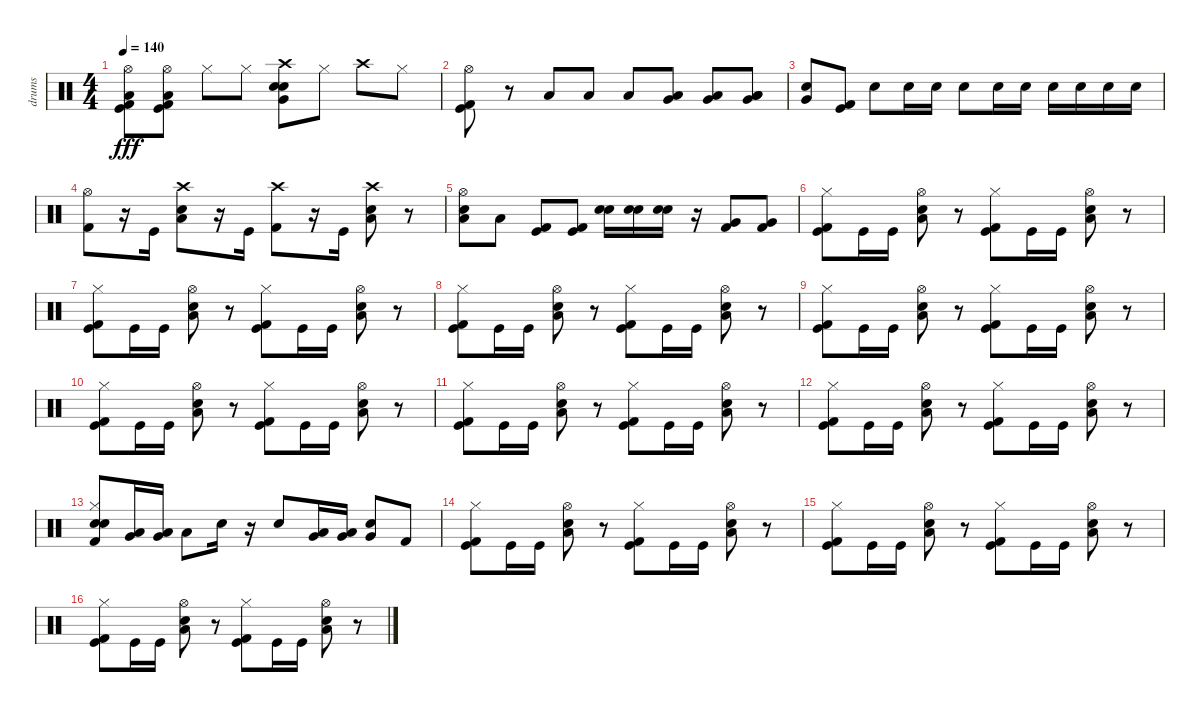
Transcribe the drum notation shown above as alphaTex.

\track ("drums" "drums") {instrument percussion}
\staff {score}
\articulation defaults
\ts (4 4)
\tempo 140
\clef neutral
\ks c
("Hi-Hat (open)" "Low Floor Tom (hit)" "Kick (hit)" "Kick (hit) 2").8{dy fff} ("Hi-Hat (open)" "Low Floor Tom (hit)" "Kick (hit)" "Kick (hit) 2").8 "Hi-Hat (closed)".8 "Hi-Hat (closed)".8 ("Crash high (hit)" "Very Low Tom (hit)" "Snare (hit) 2" "Electric Snare (hit)").8 "Hi-Hat (closed)".8 "Crash high (hit)".8 "Hi-Hat (closed)".8 |
("Kick (hit)" "Hi-Hat (open)" "Kick (hit) 2").8 r.8 "Low Floor Tom (hit)".8 "Low Floor Tom (hit)".8 "Low Floor Tom (hit)".8 ("Low Floor Tom (hit)" "Very Low Tom (hit)").8 ("Low Floor Tom (hit)" "Very Low Tom (hit)").8 ("Low Tom (hit)" "Very Low Tom (hit)" "Low Floor Tom (hit)").8 |
("Electric Snare (hit)" "Very Low Tom (hit)").8 ("Kick (hit)" "Kick (hit) 2").8 "Snare (hit) 2".8 "Snare (hit) 2".16 "Snare (hit) 2".16 "Snare (hit) 2".8 "Snare (hit) 2".16 "Snare (hit) 2".16 "Snare (hit) 2".16 "Snare (hit) 2".16 "Snare (hit) 2".16 "Snare (hit) 2".16 |
("Kick (hit) 2" "Hi-Hat (open)").8 r.16 "Kick (hit)".16 ("Low Tom (hit)" "Snare (hit) 2" "Crash high (hit)").8 r.16 "Kick (hit)".16 ("Kick (hit) 2" "Crash high (hit)").8 r.16 "Kick (hit)".16 ("Low Tom (hit)" "Snare (hit) 2" "Crash high (hit)").8 r.8 |
("Hi-Hat (open)" "Snare (hit) 2" "Low Tom (hit)").8 "Low Floor Tom (hit)".8 ("Kick (hit)" "Kick (hit) 2").8 ("Kick (hit)" "Kick (hit) 2").8 ("Electric Snare (hit)" "Snare (hit) 2").16 ("Electric Snare (hit)" "Snare (hit) 2").16 ("Snare (hit) 2" "Electric Snare (hit)").16 r.16 ("Kick (hit) 2" "Very Low Tom (hit)").8 ("Kick (hit) 2" "Very Low Tom (hit)").8 |
("Hi-Hat (closed)" "Kick (hit)" "Kick (hit) 2").8 "Kick (hit)".16 "Kick (hit)".16 ("Hi-Hat (open)" "Low Tom (hit)" "Snare (hit) 2").8 r.8 ("Hi-Hat (closed)" "Kick (hit)" "Kick (hit) 2").8 "Kick (hit)".16 "Kick (hit)".16 ("Hi-Hat (open)" "Low Tom (hit)" "Snare (hit) 2").8 r.8 |
("Hi-Hat (closed)" "Kick (hit)" "Kick (hit) 2").8 "Kick (hit)".16 "Kick (hit)".16 ("Hi-Hat (open)" "Low Tom (hit)" "Snare (hit) 2").8 r.8 ("Hi-Hat (closed)" "Kick (hit)" "Kick (hit) 2").8 "Kick (hit)".16 "Kick (hit)".16 ("Hi-Hat (open)" "Low Tom (hit)" "Snare (hit) 2").8 r.8 |
("Hi-Hat (closed)" "Kick (hit)" "Kick (hit) 2").8 "Kick (hit)".16 "Kick (hit)".16 ("Hi-Hat (open)" "Low Tom (hit)" "Snare (hit) 2").8 r.8 ("Hi-Hat (closed)" "Kick (hit)" "Kick (hit) 2").8 "Kick (hit)".16 "Kick (hit)".16 ("Hi-Hat (open)" "Low Tom (hit)" "Snare (hit) 2").8 r.8 |
("Hi-Hat (closed)" "Kick (hit)" "Kick (hit) 2").8 "Kick (hit)".16 "Kick (hit)".16 ("Hi-Hat (open)" "Low Tom (hit)" "Snare (hit) 2").8 r.8 ("Hi-Hat (closed)" "Kick (hit)" "Kick (hit) 2").8 "Kick (hit)".16 "Kick (hit)".16 ("Hi-Hat (open)" "Low Tom (hit)" "Snare (hit) 2").8 r.8 |
("Hi-Hat (closed)" "Kick (hit)" "Kick (hit) 2").8 "Kick (hit)".16 "Kick (hit)".16 ("Hi-Hat (open)" "Low Tom (hit)" "Snare (hit) 2").8 r.8 ("Hi-Hat (closed)" "Kick (hit)" "Kick (hit) 2").8 "Kick (hit)".16 "Kick (hit)".16 ("Hi-Hat (open)" "Low Tom (hit)" "Snare (hit) 2").8 r.8 |
("Hi-Hat (closed)" "Kick (hit)" "Kick (hit) 2").8 "Kick (hit)".16 "Kick (hit)".16 ("Hi-Hat (open)" "Low Tom (hit)" "Snare (hit) 2").8 r.8 ("Hi-Hat (closed)" "Kick (hit)" "Kick (hit) 2").8 "Kick (hit)".16 "Kick (hit)".16 ("Hi-Hat (open)" "Low Tom (hit)" "Snare (hit) 2").8 r.8 |
("Hi-Hat (closed)" "Kick (hit)" "Kick (hit) 2").8 "Kick (hit)".16 "Kick (hit)".16 ("Hi-Hat (open)" "Low Tom (hit)" "Snare (hit) 2").8 r.8 ("Hi-Hat (closed)" "Kick (hit)" "Kick (hit) 2").8 "Kick (hit)".16 "Kick (hit)".16 ("Hi-Hat (open)" "Low Tom (hit)" "Snare (hit) 2").8 r.8 |
("Hi-Hat (closed)" "Electric Snare (hit)" "Snare (hit) 2" "Kick (hit) 2").8 ("Low Tom (hit)" "Very Low Tom (hit)").16 ("Very Low Tom (hit)" "Low Floor Tom (hit)").16 "Low Tom (hit)".8 "Snare (hit) 2".16 r.16 "Snare (hit) 2".8 ("Low Tom (hit)" "Very Low Tom (hit)").16 ("Very Low Tom (hit)" "Low Floor Tom (hit)").16 ("Snare (hit) 2" "Very Low Tom (hit)").8 "Kick (hit) 2".8 |
("Hi-Hat (closed)" "Kick (hit)" "Kick (hit) 2").8 "Kick (hit)".16 "Kick (hit)".16 ("Hi-Hat (open)" "Low Tom (hit)" "Snare (hit) 2").8 r.8 ("Hi-Hat (closed)" "Kick (hit)" "Kick (hit) 2").8 "Kick (hit)".16 "Kick (hit)".16 ("Hi-Hat (open)" "Low Tom (hit)" "Snare (hit) 2").8 r.8 |
("Hi-Hat (closed)" "Kick (hit)" "Kick (hit) 2").8 "Kick (hit)".16 "Kick (hit)".16 ("Hi-Hat (open)" "Low Tom (hit)" "Snare (hit) 2").8 r.8 ("Hi-Hat (closed)" "Kick (hit)" "Kick (hit) 2").8 "Kick (hit)".16 "Kick (hit)".16 ("Hi-Hat (open)" "Low Tom (hit)" "Snare (hit) 2").8 r.8 |
("Hi-Hat (closed)" "Kick (hit)" "Kick (hit) 2").8 "Kick (hit)".16 "Kick (hit)".16 ("Hi-Hat (open)" "Low Tom (hit)" "Snare (hit) 2").8 r.8 ("Hi-Hat (closed)" "Kick (hit)" "Kick (hit) 2").8 "Kick (hit)".16 "Kick (hit)".16 ("Hi-Hat (open)" "Low Tom (hit)" "Snare (hit) 2").8 r.8
